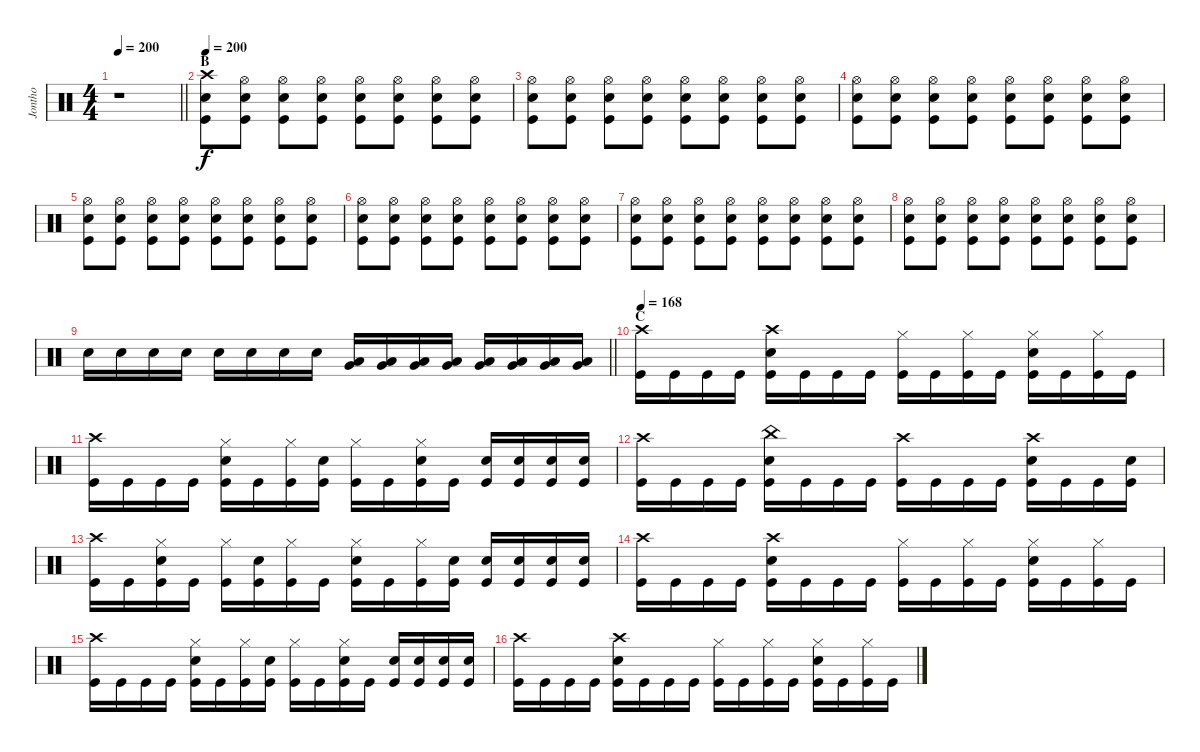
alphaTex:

\track ("Jontho" "Jontho") {instrument percussion}
\staff {score}
\articulation defaults
\ts (4 4)
\tempo 200
\clef neutral
\barLineRight lightlight
\ks c
r.1{dy f} |
\section ("" "B")
\tempo 200
("Crash high (hit)" "Snare (hit) 2" "Kick (hit)").8 ("Hi-Hat (open)" "Snare (hit) 2" "Kick (hit)").8 ("Hi-Hat (open)" "Snare (hit) 2" "Kick (hit)").8 ("Hi-Hat (open)" "Snare (hit) 2" "Kick (hit)").8 ("Hi-Hat (open)" "Snare (hit) 2" "Kick (hit)").8 ("Hi-Hat (open)" "Snare (hit) 2" "Kick (hit)").8 ("Hi-Hat (open)" "Snare (hit) 2" "Kick (hit)").8 ("Hi-Hat (open)" "Snare (hit) 2" "Kick (hit)").8 |
("Hi-Hat (open)" "Snare (hit) 2" "Kick (hit)").8 ("Hi-Hat (open)" "Snare (hit) 2" "Kick (hit)").8 ("Hi-Hat (open)" "Snare (hit) 2" "Kick (hit)").8 ("Hi-Hat (open)" "Snare (hit) 2" "Kick (hit)").8 ("Hi-Hat (open)" "Snare (hit) 2" "Kick (hit)").8 ("Hi-Hat (open)" "Snare (hit) 2" "Kick (hit)").8 ("Hi-Hat (open)" "Snare (hit) 2" "Kick (hit)").8 ("Hi-Hat (open)" "Snare (hit) 2" "Kick (hit)").8 |
("Hi-Hat (open)" "Snare (hit) 2" "Kick (hit)").8 ("Hi-Hat (open)" "Snare (hit) 2" "Kick (hit)").8 ("Hi-Hat (open)" "Snare (hit) 2" "Kick (hit)").8 ("Hi-Hat (open)" "Snare (hit) 2" "Kick (hit)").8 ("Hi-Hat (open)" "Snare (hit) 2" "Kick (hit)").8 ("Hi-Hat (open)" "Snare (hit) 2" "Kick (hit)").8 ("Hi-Hat (open)" "Snare (hit) 2" "Kick (hit)").8 ("Hi-Hat (open)" "Snare (hit) 2" "Kick (hit)").8 |
("Hi-Hat (open)" "Snare (hit) 2" "Kick (hit)").8 ("Hi-Hat (open)" "Snare (hit) 2" "Kick (hit)").8 ("Hi-Hat (open)" "Snare (hit) 2" "Kick (hit)").8 ("Hi-Hat (open)" "Snare (hit) 2" "Kick (hit)").8 ("Hi-Hat (open)" "Snare (hit) 2" "Kick (hit)").8 ("Hi-Hat (open)" "Snare (hit) 2" "Kick (hit)").8 ("Hi-Hat (open)" "Snare (hit) 2" "Kick (hit)").8 ("Hi-Hat (open)" "Snare (hit) 2" "Kick (hit)").8 |
("Hi-Hat (open)" "Snare (hit) 2" "Kick (hit)").8 ("Hi-Hat (open)" "Snare (hit) 2" "Kick (hit)").8 ("Hi-Hat (open)" "Snare (hit) 2" "Kick (hit)").8 ("Hi-Hat (open)" "Snare (hit) 2" "Kick (hit)").8 ("Hi-Hat (open)" "Snare (hit) 2" "Kick (hit)").8 ("Hi-Hat (open)" "Snare (hit) 2" "Kick (hit)").8 ("Hi-Hat (open)" "Snare (hit) 2" "Kick (hit)").8 ("Hi-Hat (open)" "Snare (hit) 2" "Kick (hit)").8 |
("Hi-Hat (open)" "Snare (hit) 2" "Kick (hit)").8 ("Hi-Hat (open)" "Snare (hit) 2" "Kick (hit)").8 ("Hi-Hat (open)" "Snare (hit) 2" "Kick (hit)").8 ("Hi-Hat (open)" "Snare (hit) 2" "Kick (hit)").8 ("Hi-Hat (open)" "Snare (hit) 2" "Kick (hit)").8 ("Hi-Hat (open)" "Snare (hit) 2" "Kick (hit)").8 ("Hi-Hat (open)" "Snare (hit) 2" "Kick (hit)").8 ("Hi-Hat (open)" "Snare (hit) 2" "Kick (hit)").8 |
("Hi-Hat (open)" "Snare (hit) 2" "Kick (hit)").8 ("Hi-Hat (open)" "Snare (hit) 2" "Kick (hit)").8 ("Hi-Hat (open)" "Snare (hit) 2" "Kick (hit)").8 ("Hi-Hat (open)" "Snare (hit) 2" "Kick (hit)").8 ("Hi-Hat (open)" "Snare (hit) 2" "Kick (hit)").8 ("Hi-Hat (open)" "Snare (hit) 2" "Kick (hit)").8 ("Hi-Hat (open)" "Snare (hit) 2" "Kick (hit)").8 ("Hi-Hat (open)" "Snare (hit) 2" "Kick (hit)").8 |
\barLineRight lightlight "Snare (hit) 2".16 "Snare (hit) 2".16 "Snare (hit) 2".16 "Snare (hit) 2".16 "Snare (hit) 2".16 "Snare (hit) 2".16 "Snare (hit) 2".16 "Snare (hit) 2".16
("Low Tom (hit)" "Very Low Tom (hit)").16 ("Low Tom (hit)" "Very Low Tom (hit)").16 ("Low Tom (hit)" "Very Low Tom (hit)").16 ("Low Tom (hit)" "Very Low Tom (hit)").16 ("Very Low Tom (hit)" "Low Floor Tom (hit)").16 ("Very Low Tom (hit)" "Low Floor Tom (hit)").16 ("Very Low Tom (hit)" "Low Floor Tom (hit)").16 ("Very Low Tom (hit)" "Low Floor Tom (hit)").16 |
\section ("" "C")
\tempo 168
("Crash high (hit)" "Kick (hit)").16 "Kick (hit)".16 "Kick (hit)".16 "Kick (hit)".16 ("Crash high (hit)" "Snare (hit) 2" "Kick (hit)").16 "Kick (hit)".16 "Kick (hit)".16 "Kick (hit)".16 ("Hi-Hat (closed)" "Kick (hit)").16 "Kick (hit)".16 ("Hi-Hat (closed)" "Kick (hit)").16 "Kick (hit)".16 ("Hi-Hat (closed)" "Snare (hit) 2" "Kick (hit)").16 "Kick (hit)".16 ("Hi-Hat (closed)" "Kick (hit)").16 "Kick (hit)".16 |
("Crash high (hit)" "Kick (hit)").16 "Kick (hit)".16 "Kick (hit)".16 "Kick (hit)".16 ("Hi-Hat (closed)" "Snare (hit) 2" "Kick (hit)").16 "Kick (hit)".16 ("Hi-Hat (closed)" "Kick (hit)").16 ("Snare (hit) 2" "Kick (hit)").16 ("Hi-Hat (closed)" "Kick (hit)").16 "Kick (hit)".16 ("Hi-Hat (closed)" "Snare (hit) 2" "Kick (hit)").16 "Kick (hit)".16 ("Snare (hit) 2" "Kick (hit)").16 ("Snare (hit) 2" "Kick (hit)").16 ("Snare (hit) 2" "Kick (hit)").16 ("Snare (hit) 2" "Kick (hit)").16 |
("Crash high (hit)" "Kick (hit)").16 "Kick (hit)".16 "Kick (hit)".16 "Kick (hit)".16 ("China (hit)" "Snare (hit) 2" "Kick (hit)").16 "Kick (hit)".16 "Kick (hit)".16 "Kick (hit)".16 ("Crash high (hit)" "Kick (hit)").16 "Kick (hit)".16 "Kick (hit)".16 "Kick (hit)".16 ("Crash high (hit)" "Snare (hit) 2" "Kick (hit)").16 "Kick (hit)".16 "Kick (hit)".16 ("Snare (hit) 2" "Kick (hit)").16 |
("Crash high (hit)" "Kick (hit)").16 "Kick (hit)".16 ("Hi-Hat (closed)" "Snare (hit) 2" "Kick (hit)").16 "Kick (hit)".16 ("Hi-Hat (closed)" "Kick (hit)").16 ("Snare (hit) 2" "Kick (hit)").16 ("Hi-Hat (closed)" "Kick (hit)").16 "Kick (hit)".16 ("Hi-Hat (closed)" "Snare (hit) 2" "Kick (hit)").16 "Kick (hit)".16 ("Hi-Hat (closed)" "Kick (hit)").16 ("Snare (hit) 2" "Kick (hit)").16 ("Snare (hit) 2" "Kick (hit)").16 ("Snare (hit) 2" "Kick (hit)").16 ("Snare (hit) 2" "Kick (hit)").16 ("Snare (hit) 2" "Kick (hit)").16 |
("Crash high (hit)" "Kick (hit)").16 "Kick (hit)".16 "Kick (hit)".16 "Kick (hit)".16 ("Crash high (hit)" "Snare (hit) 2" "Kick (hit)").16 "Kick (hit)".16 "Kick (hit)".16 "Kick (hit)".16 ("Hi-Hat (closed)" "Kick (hit)").16 "Kick (hit)".16 ("Hi-Hat (closed)" "Kick (hit)").16 "Kick (hit)".16 ("Hi-Hat (closed)" "Snare (hit) 2" "Kick (hit)").16 "Kick (hit)".16 ("Hi-Hat (closed)" "Kick (hit)").16 "Kick (hit)".16 |
("Crash high (hit)" "Kick (hit)").16 "Kick (hit)".16 "Kick (hit)".16 "Kick (hit)".16 ("Hi-Hat (closed)" "Snare (hit) 2" "Kick (hit)").16 "Kick (hit)".16 ("Hi-Hat (closed)" "Kick (hit)").16 ("Snare (hit) 2" "Kick (hit)").16 ("Hi-Hat (closed)" "Kick (hit)").16 "Kick (hit)".16 ("Hi-Hat (closed)" "Snare (hit) 2" "Kick (hit)").16 "Kick (hit)".16 ("Snare (hit) 2" "Kick (hit)").16 ("Snare (hit) 2" "Kick (hit)").16 ("Snare (hit) 2" "Kick (hit)").16 ("Snare (hit) 2" "Kick (hit)").16 |
("Crash high (hit)" "Kick (hit)").16 "Kick (hit)".16 "Kick (hit)".16 "Kick (hit)".16 ("Crash high (hit)" "Snare (hit) 2" "Kick (hit)").16 "Kick (hit)".16 "Kick (hit)".16 "Kick (hit)".16 ("Hi-Hat (closed)" "Kick (hit)").16 "Kick (hit)".16 ("Hi-Hat (closed)" "Kick (hit)").16 "Kick (hit)".16 ("Hi-Hat (closed)" "Snare (hit) 2" "Kick (hit)").16 "Kick (hit)".16 ("Hi-Hat (closed)" "Kick (hit)").16 "Kick (hit)".16
